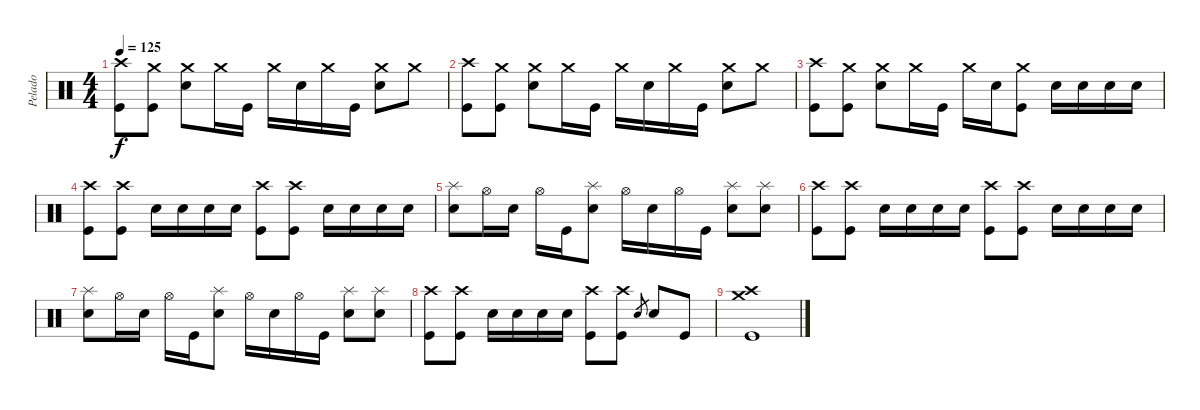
\track ("Pelado" "Pelado") {instrument percussion}
\staff {score}
\articulation defaults
\ts (4 4)
\tempo 125
\clef neutral
\ks c
("Crash high (hit)" "Kick (hit)").8{dy f} ("Crash medium (hit)" "Kick (hit)").8 ("Crash medium (hit)" "Electric Snare (hit)").8 "Crash medium (hit)".16 "Kick (hit)".16 "Crash medium (hit)".16 "Electric Snare (hit)".16 "Crash medium (hit)".16 "Kick (hit)".16 ("Crash medium (hit)" "Electric Snare (hit)").8 "Crash medium (hit)".8 |
("Crash high (hit)" "Kick (hit)").8 ("Crash medium (hit)" "Kick (hit)").8 ("Crash medium (hit)" "Electric Snare (hit)").8 "Crash medium (hit)".16 "Kick (hit)".16 "Crash medium (hit)".16 "Electric Snare (hit)".16 "Crash medium (hit)".16 "Kick (hit)".16 ("Crash medium (hit)" "Electric Snare (hit)").8 "Crash medium (hit)".8 |
("Crash high (hit)" "Kick (hit)").8 ("Crash medium (hit)" "Kick (hit)").8 ("Crash medium (hit)" "Electric Snare (hit)").8 "Crash medium (hit)".16 "Kick (hit)".16 "Crash medium (hit)".16 "Electric Snare (hit)".16 ("Crash medium (hit)" "Kick (hit)").8 "Electric Snare (hit)".16 "Electric Snare (hit)".16 "Electric Snare (hit)".16 "Electric Snare (hit)".16 |
("Crash high (hit)" "Kick (hit)").8 ("Crash high (hit)" "Kick (hit)").8 "Electric Snare (hit)".16 "Electric Snare (hit)".16 "Electric Snare (hit)".16 "Electric Snare (hit)".16 ("Crash high (hit)" "Kick (hit)").8 ("Crash high (hit)" "Kick (hit)").8 "Electric Snare (hit)".16 "Electric Snare (hit)".16 "Electric Snare (hit)".16 "Electric Snare (hit)".16 |
("Splash (hit)" "Electric Snare (hit)").8 "Hi-Hat (open)".16 "Electric Snare (hit)".16 "Hi-Hat (open)".16 "Kick (hit)".16 ("Splash (hit)" "Electric Snare (hit)").8 "Hi-Hat (open)".16 "Electric Snare (hit)".16 "Hi-Hat (open)".16 "Kick (hit)".16 ("Splash (hit)" "Electric Snare (hit)").8 ("Splash (hit)" "Electric Snare (hit)").8 |
("Crash high (hit)" "Kick (hit)").8 ("Crash high (hit)" "Kick (hit)").8 "Electric Snare (hit)".16 "Electric Snare (hit)".16 "Electric Snare (hit)".16 "Electric Snare (hit)".16 ("Crash high (hit)" "Kick (hit)").8 ("Crash high (hit)" "Kick (hit)").8 "Electric Snare (hit)".16 "Electric Snare (hit)".16 "Electric Snare (hit)".16 "Electric Snare (hit)".16 |
("Splash (hit)" "Electric Snare (hit)").8 "Hi-Hat (open)".16 "Electric Snare (hit)".16 "Hi-Hat (open)".16 "Kick (hit)".16 ("Splash (hit)" "Electric Snare (hit)").8 "Hi-Hat (open)".16 "Electric Snare (hit)".16 "Hi-Hat (open)".16 "Kick (hit)".16 ("Splash (hit)" "Electric Snare (hit)").8 ("Splash (hit)" "Electric Snare (hit)").8 |
("Crash high (hit)" "Kick (hit)").8 ("Crash high (hit)" "Kick (hit)").8 "Electric Snare (hit)".16 "Electric Snare (hit)".16 "Electric Snare (hit)".16 "Electric Snare (hit)".16 ("Crash high (hit)" "Kick (hit)").8 ("Crash high (hit)" "Kick (hit)").8 "Electric Snare (hit)".8{gr} "Electric Snare (hit)".8 "Kick (hit)".8 |
("Crash high (hit)" "Crash medium (hit)" "Kick (hit)").1
